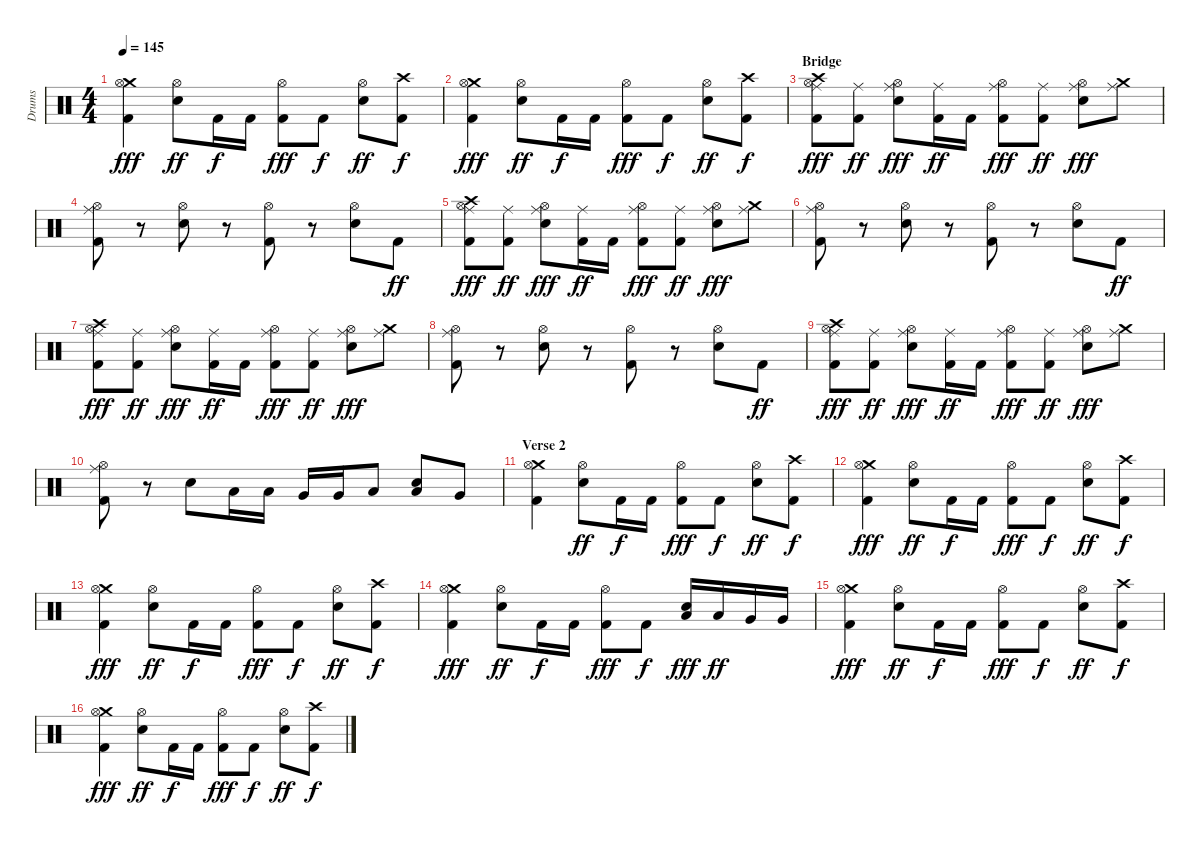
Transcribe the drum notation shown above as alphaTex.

\track ("Drums" "Drums") {instrument percussion}
\staff {score}
\articulation defaults
\ts (4 4)
\tempo 145
\clef neutral
\ks c
("Crash medium (hit)" "Hi-Hat (open)" "Kick (hit) 2").4{dy fff} ("Hi-Hat (open)" "Snare (hit) 2").8{dy ff} "Kick (hit) 2".16{dy f} "Kick (hit) 2".16 ("Hi-Hat (open)" "Kick (hit) 2").8{dy fff} "Kick (hit) 2".8{dy f} ("Hi-Hat (open)" "Snare (hit) 2").8{dy ff} ("Crash high (hit)" "Kick (hit) 2").8{dy f} |
("Crash medium (hit)" "Hi-Hat (open)" "Kick (hit) 2").4{dy fff} ("Hi-Hat (open)" "Snare (hit) 2").8{dy ff} "Kick (hit) 2".16{dy f} "Kick (hit) 2".16 ("Hi-Hat (open)" "Kick (hit) 2").8{dy fff} "Kick (hit) 2".8{dy f} ("Hi-Hat (open)" "Snare (hit) 2").8{dy ff} ("Crash high (hit)" "Kick (hit) 2").8{dy f} |
\section ("" "Bridge")
("Ride (middle)" "Crash high (hit)" "Hi-Hat (open)" "Kick (hit) 2").8{dy fff} ("Ride (middle)" "Kick (hit) 2").8{dy ff} ("Ride (middle)" "Hi-Hat (open)" "Snare (hit) 2").8{dy fff} ("Ride (middle)" "Kick (hit) 2").16{dy ff} "Kick (hit) 2".16 ("Ride (middle)" "Hi-Hat (open)" "Kick (hit) 2").8{dy fff} ("Ride (middle)" "Kick (hit) 2").8{dy ff} ("Ride (middle)" "Hi-Hat (open)" "Snare (hit) 2").8{dy fff} ("Ride (middle)" "Crash medium (hit)").8 |
("Ride (middle)" "Hi-Hat (open)" "Kick (hit) 2").8 r.8 ("Hi-Hat (open)" "Snare (hit) 2").8 r.8 ("Hi-Hat (open)" "Kick (hit) 2").8 r.8 ("Hi-Hat (open)" "Snare (hit) 2").8 "Kick (hit) 2".8{dy ff} |
("Ride (middle)" "Crash high (hit)" "Hi-Hat (open)" "Kick (hit) 2").8{dy fff} ("Ride (middle)" "Kick (hit) 2").8{dy ff} ("Ride (middle)" "Hi-Hat (open)" "Snare (hit) 2").8{dy fff} ("Ride (middle)" "Kick (hit) 2").16{dy ff} "Kick (hit) 2".16 ("Ride (middle)" "Hi-Hat (open)" "Kick (hit) 2").8{dy fff} ("Ride (middle)" "Kick (hit) 2").8{dy ff} ("Ride (middle)" "Hi-Hat (open)" "Snare (hit) 2").8{dy fff} ("Ride (middle)" "Crash medium (hit)").8 |
("Ride (middle)" "Hi-Hat (open)" "Kick (hit) 2").8 r.8 ("Hi-Hat (open)" "Snare (hit) 2").8 r.8 ("Hi-Hat (open)" "Kick (hit) 2").8 r.8 ("Hi-Hat (open)" "Snare (hit) 2").8 "Kick (hit) 2".8{dy ff} |
("Ride (middle)" "Crash high (hit)" "Hi-Hat (open)" "Kick (hit) 2").8{dy fff} ("Ride (middle)" "Kick (hit) 2").8{dy ff} ("Ride (middle)" "Hi-Hat (open)" "Snare (hit) 2").8{dy fff} ("Ride (middle)" "Kick (hit) 2").16{dy ff} "Kick (hit) 2".16 ("Ride (middle)" "Hi-Hat (open)" "Kick (hit) 2").8{dy fff} ("Ride (middle)" "Kick (hit) 2").8{dy ff} ("Ride (middle)" "Hi-Hat (open)" "Snare (hit) 2").8{dy fff} ("Ride (middle)" "Crash medium (hit)").8 |
("Ride (middle)" "Hi-Hat (open)" "Kick (hit) 2").8 r.8 ("Hi-Hat (open)" "Snare (hit) 2").8 r.8 ("Hi-Hat (open)" "Kick (hit) 2").8 r.8 ("Hi-Hat (open)" "Snare (hit) 2").8 "Kick (hit) 2".8{dy ff} |
("Ride (middle)" "Crash high (hit)" "Hi-Hat (open)" "Kick (hit) 2").8{dy fff} ("Ride (middle)" "Kick (hit) 2").8{dy ff} ("Ride (middle)" "Hi-Hat (open)" "Snare (hit) 2").8{dy fff} ("Ride (middle)" "Kick (hit) 2").16{dy ff} "Kick (hit) 2".16 ("Ride (middle)" "Hi-Hat (open)" "Kick (hit) 2").8{dy fff} ("Ride (middle)" "Kick (hit) 2").8{dy ff} ("Ride (middle)" "Hi-Hat (open)" "Snare (hit) 2").8{dy fff} ("Ride (middle)" "Crash medium (hit)").8 |
("Ride (middle)" "Hi-Hat (open)" "Kick (hit) 2").8 r.8 "Snare (hit) 2".8 "Low Tom (hit)".16 "Low Tom (hit)".16 "Very Low Tom (hit)".16 "Very Low Tom (hit)".16 "Low Floor Tom (hit)".8 ("Low Tom (hit)" "Snare (hit) 2").8 "Very Low Tom (hit)".8 |
\section ("" "Verse 2")
("Crash medium (hit)" "Hi-Hat (open)" "Kick (hit) 2").4 ("Hi-Hat (open)" "Snare (hit) 2").8{dy ff} "Kick (hit) 2".16{dy f} "Kick (hit) 2".16 ("Hi-Hat (open)" "Kick (hit) 2").8{dy fff} "Kick (hit) 2".8{dy f} ("Hi-Hat (open)" "Snare (hit) 2").8{dy ff} ("Crash high (hit)" "Kick (hit) 2").8{dy f} |
("Crash medium (hit)" "Hi-Hat (open)" "Kick (hit) 2").4{dy fff} ("Hi-Hat (open)" "Snare (hit) 2").8{dy ff} "Kick (hit) 2".16{dy f} "Kick (hit) 2".16 ("Hi-Hat (open)" "Kick (hit) 2").8{dy fff} "Kick (hit) 2".8{dy f} ("Hi-Hat (open)" "Snare (hit) 2").8{dy ff} ("Crash high (hit)" "Kick (hit) 2").8{dy f} |
("Crash medium (hit)" "Hi-Hat (open)" "Kick (hit) 2").4{dy fff} ("Hi-Hat (open)" "Snare (hit) 2").8{dy ff} "Kick (hit) 2".16{dy f} "Kick (hit) 2".16 ("Hi-Hat (open)" "Kick (hit) 2").8{dy fff} "Kick (hit) 2".8{dy f} ("Hi-Hat (open)" "Snare (hit) 2").8{dy ff} ("Crash high (hit)" "Kick (hit) 2").8{dy f} |
("Crash medium (hit)" "Hi-Hat (open)" "Kick (hit) 2").4{dy fff} ("Hi-Hat (open)" "Snare (hit) 2").8{dy ff} "Kick (hit) 2".16{dy f} "Kick (hit) 2".16 ("Hi-Hat (open)" "Kick (hit) 2").8{dy fff} "Kick (hit) 2".8{dy f} ("Low Tom (hit)" "Snare (hit) 2").16{dy fff} "Low Tom (hit)".16{dy ff} "Very Low Tom (hit)".16 "Very Low Tom (hit)".16 |
("Crash medium (hit)" "Hi-Hat (open)" "Kick (hit) 2").4{dy fff} ("Hi-Hat (open)" "Snare (hit) 2").8{dy ff} "Kick (hit) 2".16{dy f} "Kick (hit) 2".16 ("Hi-Hat (open)" "Kick (hit) 2").8{dy fff} "Kick (hit) 2".8{dy f} ("Hi-Hat (open)" "Snare (hit) 2").8{dy ff} ("Crash high (hit)" "Kick (hit) 2").8{dy f} |
("Crash medium (hit)" "Hi-Hat (open)" "Kick (hit) 2").4{dy fff} ("Hi-Hat (open)" "Snare (hit) 2").8{dy ff} "Kick (hit) 2".16{dy f} "Kick (hit) 2".16 ("Hi-Hat (open)" "Kick (hit) 2").8{dy fff} "Kick (hit) 2".8{dy f} ("Hi-Hat (open)" "Snare (hit) 2").8{dy ff} ("Crash high (hit)" "Kick (hit) 2").8{dy f}
